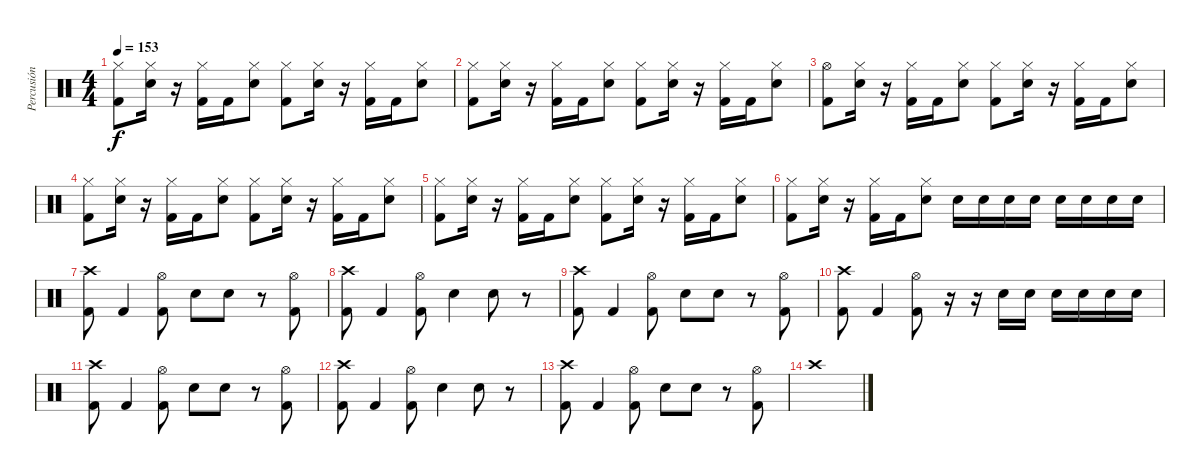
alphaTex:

\track ("Percusión" "Percusión") {instrument percussion}
\staff {score}
\articulation defaults
\ts (4 4)
\tempo 153
\clef neutral
\ks c
("Hi-Hat (closed)" "Kick (hit) 2").8{dy f} ("Hi-Hat (closed)" "Electric Snare (hit)").16 r.16 ("Hi-Hat (closed)" "Kick (hit) 2").16 "Kick (hit) 2".16 ("Hi-Hat (closed)" "Electric Snare (hit)").8 ("Hi-Hat (closed)" "Kick (hit) 2").8 ("Hi-Hat (closed)" "Electric Snare (hit)").16 r.16 ("Hi-Hat (closed)" "Kick (hit) 2").16 "Kick (hit) 2".16 ("Hi-Hat (closed)" "Electric Snare (hit)").8 |
("Hi-Hat (closed)" "Kick (hit) 2").8 ("Hi-Hat (closed)" "Electric Snare (hit)").16 r.16 ("Hi-Hat (closed)" "Kick (hit) 2").16 "Kick (hit) 2".16 ("Hi-Hat (closed)" "Electric Snare (hit)").8 ("Hi-Hat (closed)" "Kick (hit) 2").8 ("Hi-Hat (closed)" "Electric Snare (hit)").16 r.16 ("Hi-Hat (closed)" "Kick (hit) 2").16 "Kick (hit) 2".16 ("Hi-Hat (closed)" "Electric Snare (hit)").8 |
("Hi-Hat (open)" "Kick (hit) 2").8 ("Hi-Hat (closed)" "Electric Snare (hit)").16 r.16 ("Hi-Hat (closed)" "Kick (hit) 2").16 "Kick (hit) 2".16 ("Hi-Hat (closed)" "Electric Snare (hit)").8 ("Hi-Hat (closed)" "Kick (hit) 2").8 ("Hi-Hat (closed)" "Electric Snare (hit)").16 r.16 ("Hi-Hat (closed)" "Kick (hit) 2").16 "Kick (hit) 2".16 ("Hi-Hat (closed)" "Electric Snare (hit)").8 |
("Hi-Hat (closed)" "Kick (hit) 2").8 ("Hi-Hat (closed)" "Electric Snare (hit)").16 r.16 ("Hi-Hat (closed)" "Kick (hit) 2").16 "Kick (hit) 2".16 ("Hi-Hat (closed)" "Electric Snare (hit)").8 ("Hi-Hat (closed)" "Kick (hit) 2").8 ("Hi-Hat (closed)" "Electric Snare (hit)").16 r.16 ("Hi-Hat (closed)" "Kick (hit) 2").16 "Kick (hit) 2".16 ("Hi-Hat (closed)" "Electric Snare (hit)").8 |
("Hi-Hat (closed)" "Kick (hit) 2").8 ("Hi-Hat (closed)" "Electric Snare (hit)").16 r.16 ("Hi-Hat (closed)" "Kick (hit) 2").16 "Kick (hit) 2".16 ("Hi-Hat (closed)" "Electric Snare (hit)").8 ("Hi-Hat (closed)" "Kick (hit) 2").8 ("Hi-Hat (closed)" "Electric Snare (hit)").16 r.16 ("Hi-Hat (closed)" "Kick (hit) 2").16 "Kick (hit) 2".16 ("Hi-Hat (closed)" "Electric Snare (hit)").8 |
("Hi-Hat (closed)" "Kick (hit) 2").8 ("Hi-Hat (closed)" "Electric Snare (hit)").16 r.16 ("Hi-Hat (closed)" "Kick (hit) 2").16 "Kick (hit) 2".16 ("Hi-Hat (closed)" "Electric Snare (hit)").8 "Electric Snare (hit)".16 "Electric Snare (hit)".16 "Electric Snare (hit)".16 "Electric Snare (hit)".16 "Electric Snare (hit)".16 "Electric Snare (hit)".16 "Electric Snare (hit)".16 "Electric Snare (hit)".16 |
("Crash high (hit)" "Kick (hit) 2").8 "Kick (hit) 2".4 ("Hi-Hat (open)" "Kick (hit) 2").8 "Electric Snare (hit)".8 "Electric Snare (hit)".8 r.8 ("Hi-Hat (open)" "Kick (hit) 2").8 |
("Crash high (hit)" "Kick (hit) 2").8 "Kick (hit) 2".4 ("Hi-Hat (open)" "Kick (hit) 2").8 "Electric Snare (hit)".4 "Electric Snare (hit)".8 r.8 |
("Crash high (hit)" "Kick (hit) 2").8 "Kick (hit) 2".4 ("Hi-Hat (open)" "Kick (hit) 2").8 "Electric Snare (hit)".8 "Electric Snare (hit)".8 r.8 ("Hi-Hat (open)" "Kick (hit) 2").8 |
("Crash high (hit)" "Kick (hit) 2").8 "Kick (hit) 2".4 ("Hi-Hat (open)" "Kick (hit) 2").8 r.16 r.16 "Electric Snare (hit)".16 "Electric Snare (hit)".16 "Electric Snare (hit)".16 "Electric Snare (hit)".16 "Electric Snare (hit)".16 "Electric Snare (hit)".16 |
("Crash high (hit)" "Kick (hit) 2").8 "Kick (hit) 2".4 ("Hi-Hat (open)" "Kick (hit) 2").8 "Electric Snare (hit)".8 "Electric Snare (hit)".8 r.8 ("Hi-Hat (open)" "Kick (hit) 2").8 |
("Crash high (hit)" "Kick (hit) 2").8 "Kick (hit) 2".4 ("Hi-Hat (open)" "Kick (hit) 2").8 "Electric Snare (hit)".4 "Electric Snare (hit)".8 r.8 |
("Crash high (hit)" "Kick (hit) 2").8 "Kick (hit) 2".4 ("Hi-Hat (open)" "Kick (hit) 2").8 "Electric Snare (hit)".8 "Electric Snare (hit)".8 r.8 ("Hi-Hat (open)" "Kick (hit) 2").8 |
"Crash high (hit)".1
